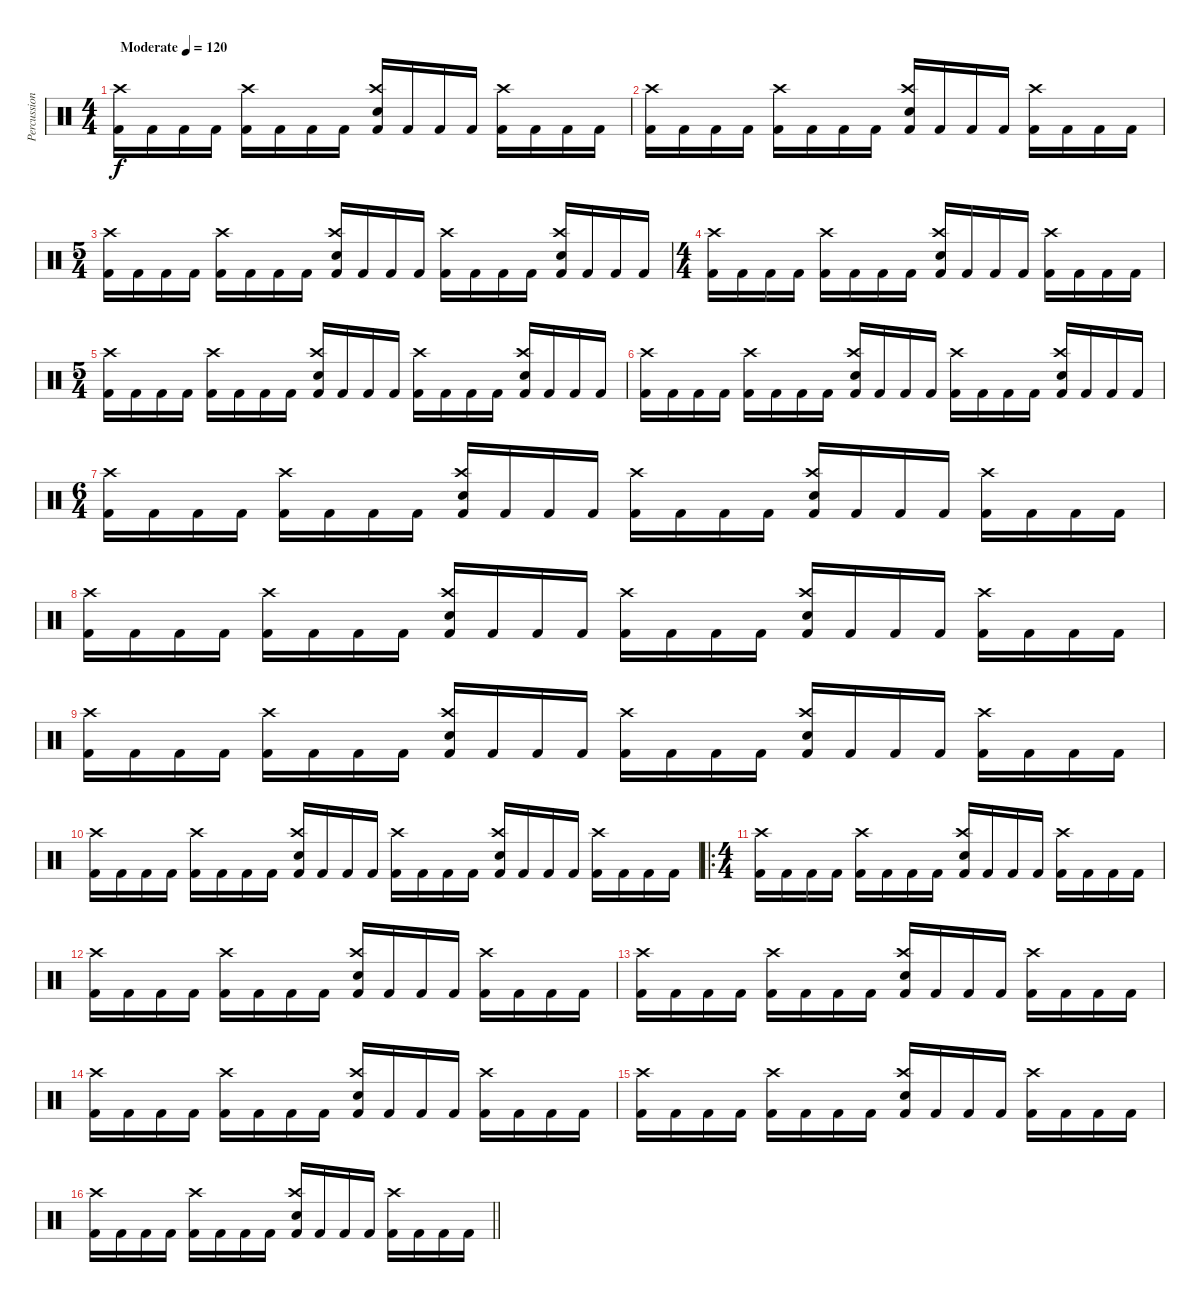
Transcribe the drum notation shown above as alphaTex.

\track ("Percussion" "Percussion") {instrument percussion}
\staff {score}
\articulation defaults
\ts (4 4)
\tempo (120 "Moderate")
\clef neutral
\ks c
("Kick (hit) 2" "Crash high (hit)").16{dy f} "Kick (hit) 2".16 "Kick (hit) 2".16 "Kick (hit) 2".16 ("Kick (hit) 2" "Crash high (hit)").16 "Kick (hit) 2".16 "Kick (hit) 2".16 "Kick (hit) 2".16 ("Kick (hit) 2" "Electric Snare (hit)" "Crash high (hit)").16 "Kick (hit) 2".16 "Kick (hit) 2".16 "Kick (hit) 2".16 ("Kick (hit) 2" "Crash high (hit)").16 "Kick (hit) 2".16 "Kick (hit) 2".16 "Kick (hit) 2".16 |
("Kick (hit) 2" "Crash high (hit)").16 "Kick (hit) 2".16 "Kick (hit) 2".16 "Kick (hit) 2".16 ("Kick (hit) 2" "Crash high (hit)").16 "Kick (hit) 2".16 "Kick (hit) 2".16 "Kick (hit) 2".16 ("Kick (hit) 2" "Electric Snare (hit)" "Crash high (hit)").16 "Kick (hit) 2".16 "Kick (hit) 2".16 "Kick (hit) 2".16 ("Kick (hit) 2" "Crash high (hit)").16 "Kick (hit) 2".16 "Kick (hit) 2".16 "Kick (hit) 2".16 |
\ts (5 4)
("Kick (hit) 2" "Crash high (hit)").16 "Kick (hit) 2".16 "Kick (hit) 2".16 "Kick (hit) 2".16 ("Kick (hit) 2" "Crash high (hit)").16 "Kick (hit) 2".16 "Kick (hit) 2".16 "Kick (hit) 2".16 ("Kick (hit) 2" "Electric Snare (hit)" "Crash high (hit)").16 "Kick (hit) 2".16 "Kick (hit) 2".16 "Kick (hit) 2".16 ("Kick (hit) 2" "Crash high (hit)").16 "Kick (hit) 2".16 "Kick (hit) 2".16 "Kick (hit) 2".16 ("Kick (hit) 2" "Electric Snare (hit)" "Crash high (hit)").16 "Kick (hit) 2".16 "Kick (hit) 2".16 "Kick (hit) 2".16 |
\ts (4 4)
("Kick (hit) 2" "Crash high (hit)").16 "Kick (hit) 2".16 "Kick (hit) 2".16 "Kick (hit) 2".16 ("Kick (hit) 2" "Crash high (hit)").16 "Kick (hit) 2".16 "Kick (hit) 2".16 "Kick (hit) 2".16 ("Kick (hit) 2" "Electric Snare (hit)" "Crash high (hit)").16 "Kick (hit) 2".16 "Kick (hit) 2".16 "Kick (hit) 2".16 ("Kick (hit) 2" "Crash high (hit)").16 "Kick (hit) 2".16 "Kick (hit) 2".16 "Kick (hit) 2".16 |
\ts (5 4)
("Kick (hit) 2" "Crash high (hit)").16 "Kick (hit) 2".16 "Kick (hit) 2".16 "Kick (hit) 2".16 ("Kick (hit) 2" "Crash high (hit)").16 "Kick (hit) 2".16 "Kick (hit) 2".16 "Kick (hit) 2".16 ("Kick (hit) 2" "Electric Snare (hit)" "Crash high (hit)").16 "Kick (hit) 2".16 "Kick (hit) 2".16 "Kick (hit) 2".16 ("Kick (hit) 2" "Crash high (hit)").16 "Kick (hit) 2".16 "Kick (hit) 2".16 "Kick (hit) 2".16 ("Kick (hit) 2" "Electric Snare (hit)" "Crash high (hit)").16 "Kick (hit) 2".16 "Kick (hit) 2".16 "Kick (hit) 2".16 |
("Kick (hit) 2" "Crash high (hit)").16 "Kick (hit) 2".16 "Kick (hit) 2".16 "Kick (hit) 2".16 ("Kick (hit) 2" "Crash high (hit)").16 "Kick (hit) 2".16 "Kick (hit) 2".16 "Kick (hit) 2".16 ("Kick (hit) 2" "Electric Snare (hit)" "Crash high (hit)").16 "Kick (hit) 2".16 "Kick (hit) 2".16 "Kick (hit) 2".16 ("Kick (hit) 2" "Crash high (hit)").16 "Kick (hit) 2".16 "Kick (hit) 2".16 "Kick (hit) 2".16 ("Kick (hit) 2" "Electric Snare (hit)" "Crash high (hit)").16 "Kick (hit) 2".16 "Kick (hit) 2".16 "Kick (hit) 2".16 |
\ts (6 4)
("Kick (hit) 2" "Crash high (hit)").16 "Kick (hit) 2".16 "Kick (hit) 2".16 "Kick (hit) 2".16 ("Kick (hit) 2" "Crash high (hit)").16 "Kick (hit) 2".16 "Kick (hit) 2".16 "Kick (hit) 2".16 ("Kick (hit) 2" "Electric Snare (hit)" "Crash high (hit)").16 "Kick (hit) 2".16 "Kick (hit) 2".16 "Kick (hit) 2".16 ("Kick (hit) 2" "Crash high (hit)").16 "Kick (hit) 2".16 "Kick (hit) 2".16 "Kick (hit) 2".16 ("Kick (hit) 2" "Electric Snare (hit)" "Crash high (hit)").16 "Kick (hit) 2".16 "Kick (hit) 2".16 "Kick (hit) 2".16 ("Kick (hit) 2" "Crash high (hit)").16 "Kick (hit) 2".16 "Kick (hit) 2".16 "Kick (hit) 2".16 |
("Kick (hit) 2" "Crash high (hit)").16 "Kick (hit) 2".16 "Kick (hit) 2".16 "Kick (hit) 2".16 ("Kick (hit) 2" "Crash high (hit)").16 "Kick (hit) 2".16 "Kick (hit) 2".16 "Kick (hit) 2".16 ("Kick (hit) 2" "Electric Snare (hit)" "Crash high (hit)").16 "Kick (hit) 2".16 "Kick (hit) 2".16 "Kick (hit) 2".16 ("Kick (hit) 2" "Crash high (hit)").16 "Kick (hit) 2".16 "Kick (hit) 2".16 "Kick (hit) 2".16 ("Kick (hit) 2" "Electric Snare (hit)" "Crash high (hit)").16 "Kick (hit) 2".16 "Kick (hit) 2".16 "Kick (hit) 2".16 ("Kick (hit) 2" "Crash high (hit)").16 "Kick (hit) 2".16 "Kick (hit) 2".16 "Kick (hit) 2".16 |
("Kick (hit) 2" "Crash high (hit)").16 "Kick (hit) 2".16 "Kick (hit) 2".16 "Kick (hit) 2".16 ("Kick (hit) 2" "Crash high (hit)").16 "Kick (hit) 2".16 "Kick (hit) 2".16 "Kick (hit) 2".16 ("Kick (hit) 2" "Electric Snare (hit)" "Crash high (hit)").16 "Kick (hit) 2".16 "Kick (hit) 2".16 "Kick (hit) 2".16 ("Kick (hit) 2" "Crash high (hit)").16 "Kick (hit) 2".16 "Kick (hit) 2".16 "Kick (hit) 2".16 ("Kick (hit) 2" "Electric Snare (hit)" "Crash high (hit)").16 "Kick (hit) 2".16 "Kick (hit) 2".16 "Kick (hit) 2".16 ("Kick (hit) 2" "Crash high (hit)").16 "Kick (hit) 2".16 "Kick (hit) 2".16 "Kick (hit) 2".16 |
("Kick (hit) 2" "Crash high (hit)").16 "Kick (hit) 2".16 "Kick (hit) 2".16 "Kick (hit) 2".16 ("Kick (hit) 2" "Crash high (hit)").16 "Kick (hit) 2".16 "Kick (hit) 2".16 "Kick (hit) 2".16 ("Kick (hit) 2" "Electric Snare (hit)" "Crash high (hit)").16 "Kick (hit) 2".16 "Kick (hit) 2".16 "Kick (hit) 2".16 ("Kick (hit) 2" "Crash high (hit)").16 "Kick (hit) 2".16 "Kick (hit) 2".16 "Kick (hit) 2".16 ("Kick (hit) 2" "Electric Snare (hit)" "Crash high (hit)").16 "Kick (hit) 2".16 "Kick (hit) 2".16 "Kick (hit) 2".16 ("Kick (hit) 2" "Crash high (hit)").16 "Kick (hit) 2".16 "Kick (hit) 2".16 "Kick (hit) 2".16 |
\ro
\ts (4 4)
("Kick (hit) 2" "Crash high (hit)").16 "Kick (hit) 2".16 "Kick (hit) 2".16 "Kick (hit) 2".16 ("Kick (hit) 2" "Crash high (hit)").16 "Kick (hit) 2".16 "Kick (hit) 2".16 "Kick (hit) 2".16 ("Kick (hit) 2" "Electric Snare (hit)" "Crash high (hit)").16 "Kick (hit) 2".16 "Kick (hit) 2".16 "Kick (hit) 2".16 ("Kick (hit) 2" "Crash high (hit)").16 "Kick (hit) 2".16 "Kick (hit) 2".16 "Kick (hit) 2".16 |
("Kick (hit) 2" "Crash high (hit)").16 "Kick (hit) 2".16 "Kick (hit) 2".16 "Kick (hit) 2".16 ("Kick (hit) 2" "Crash high (hit)").16 "Kick (hit) 2".16 "Kick (hit) 2".16 "Kick (hit) 2".16 ("Kick (hit) 2" "Electric Snare (hit)" "Crash high (hit)").16 "Kick (hit) 2".16 "Kick (hit) 2".16 "Kick (hit) 2".16 ("Kick (hit) 2" "Crash high (hit)").16 "Kick (hit) 2".16 "Kick (hit) 2".16 "Kick (hit) 2".16 |
("Kick (hit) 2" "Crash high (hit)").16 "Kick (hit) 2".16 "Kick (hit) 2".16 "Kick (hit) 2".16 ("Kick (hit) 2" "Crash high (hit)").16 "Kick (hit) 2".16 "Kick (hit) 2".16 "Kick (hit) 2".16 ("Kick (hit) 2" "Electric Snare (hit)" "Crash high (hit)").16 "Kick (hit) 2".16 "Kick (hit) 2".16 "Kick (hit) 2".16 ("Kick (hit) 2" "Crash high (hit)").16 "Kick (hit) 2".16 "Kick (hit) 2".16 "Kick (hit) 2".16 |
("Kick (hit) 2" "Crash high (hit)").16 "Kick (hit) 2".16 "Kick (hit) 2".16 "Kick (hit) 2".16 ("Kick (hit) 2" "Crash high (hit)").16 "Kick (hit) 2".16 "Kick (hit) 2".16 "Kick (hit) 2".16 ("Kick (hit) 2" "Electric Snare (hit)" "Crash high (hit)").16 "Kick (hit) 2".16 "Kick (hit) 2".16 "Kick (hit) 2".16 ("Kick (hit) 2" "Crash high (hit)").16 "Kick (hit) 2".16 "Kick (hit) 2".16 "Kick (hit) 2".16 |
("Kick (hit) 2" "Crash high (hit)").16 "Kick (hit) 2".16 "Kick (hit) 2".16 "Kick (hit) 2".16 ("Kick (hit) 2" "Crash high (hit)").16 "Kick (hit) 2".16 "Kick (hit) 2".16 "Kick (hit) 2".16 ("Kick (hit) 2" "Electric Snare (hit)" "Crash high (hit)").16 "Kick (hit) 2".16 "Kick (hit) 2".16 "Kick (hit) 2".16 ("Kick (hit) 2" "Crash high (hit)").16 "Kick (hit) 2".16 "Kick (hit) 2".16 "Kick (hit) 2".16 |
\barLineRight lightlight
("Kick (hit) 2" "Crash high (hit)").16 "Kick (hit) 2".16 "Kick (hit) 2".16 "Kick (hit) 2".16 ("Kick (hit) 2" "Crash high (hit)").16 "Kick (hit) 2".16 "Kick (hit) 2".16 "Kick (hit) 2".16 ("Kick (hit) 2" "Electric Snare (hit)" "Crash high (hit)").16 "Kick (hit) 2".16 "Kick (hit) 2".16 "Kick (hit) 2".16 ("Kick (hit) 2" "Crash high (hit)").16 "Kick (hit) 2".16 "Kick (hit) 2".16 "Kick (hit) 2".16
